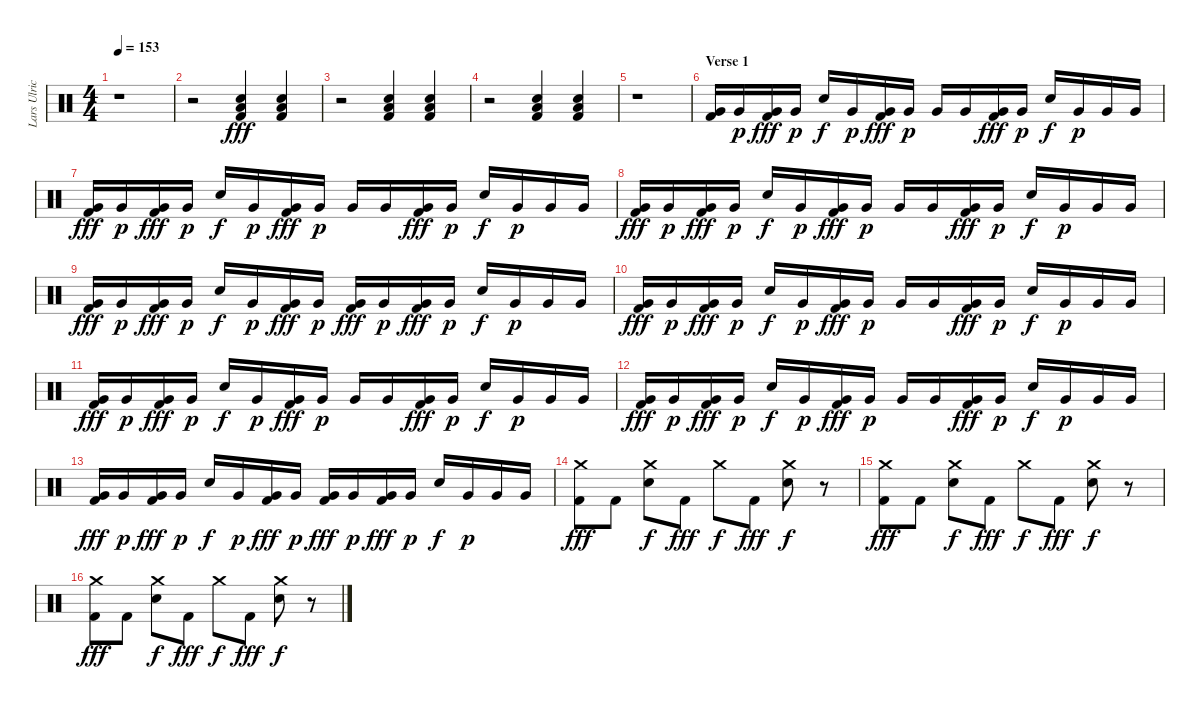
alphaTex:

\track ("Lars Ulrich (Drums)" "Lars Ulric") {instrument percussion}
\staff {score}
\articulation defaults
\ts (4 4)
\tempo 153
\clef neutral
\ks c
r.1{dy f} |
r.2 ("Low Floor Tom (hit)" "Electric Snare (hit)" "Kick (hit) 2").4{dy fff} ("Low Floor Tom (hit)" "Electric Snare (hit)" "Kick (hit) 2").4 |
r.2 ("Low Floor Tom (hit)" "Electric Snare (hit)" "Kick (hit) 2").4 ("Low Floor Tom (hit)" "Electric Snare (hit)" "Kick (hit) 2").4 |
r.2 ("Low Floor Tom (hit)" "Electric Snare (hit)" "Kick (hit) 2").4 ("Low Floor Tom (hit)" "Electric Snare (hit)" "Kick (hit) 2").4 |
r.1 |
\section ("" "Verse 1")
("Very Low Tom (hit)" "Kick (hit) 2").16 "Very Low Tom (hit)".16{dy p} ("Very Low Tom (hit)" "Kick (hit) 2").16{dy fff} "Very Low Tom (hit)".16{dy p} "Electric Snare (hit)".16{dy f} "Very Low Tom (hit)".16{dy p} ("Very Low Tom (hit)" "Kick (hit) 2").16{dy fff} "Very Low Tom (hit)".16{dy p} "Very Low Tom (hit)".16 "Very Low Tom (hit)".16 ("Very Low Tom (hit)" "Kick (hit) 2").16{dy fff} "Very Low Tom (hit)".16{dy p} "Electric Snare (hit)".16{dy f} "Very Low Tom (hit)".16{dy p} "Very Low Tom (hit)".16 "Very Low Tom (hit)".16 |
("Very Low Tom (hit)" "Kick (hit) 2").16{dy fff} "Very Low Tom (hit)".16{dy p} ("Very Low Tom (hit)" "Kick (hit) 2").16{dy fff} "Very Low Tom (hit)".16{dy p} "Electric Snare (hit)".16{dy f} "Very Low Tom (hit)".16{dy p} ("Very Low Tom (hit)" "Kick (hit) 2").16{dy fff} "Very Low Tom (hit)".16{dy p} "Very Low Tom (hit)".16 "Very Low Tom (hit)".16 ("Very Low Tom (hit)" "Kick (hit) 2").16{dy fff} "Very Low Tom (hit)".16{dy p} "Electric Snare (hit)".16{dy f} "Very Low Tom (hit)".16{dy p} "Very Low Tom (hit)".16 "Very Low Tom (hit)".16 |
("Very Low Tom (hit)" "Kick (hit) 2").16{dy fff} "Very Low Tom (hit)".16{dy p} ("Very Low Tom (hit)" "Kick (hit) 2").16{dy fff} "Very Low Tom (hit)".16{dy p} "Electric Snare (hit)".16{dy f} "Very Low Tom (hit)".16{dy p} ("Very Low Tom (hit)" "Kick (hit) 2").16{dy fff} "Very Low Tom (hit)".16{dy p} "Very Low Tom (hit)".16 "Very Low Tom (hit)".16 ("Very Low Tom (hit)" "Kick (hit) 2").16{dy fff} "Very Low Tom (hit)".16{dy p} "Electric Snare (hit)".16{dy f} "Very Low Tom (hit)".16{dy p} "Very Low Tom (hit)".16 "Very Low Tom (hit)".16 |
("Very Low Tom (hit)" "Kick (hit) 2").16{dy fff} "Very Low Tom (hit)".16{dy p} ("Very Low Tom (hit)" "Kick (hit) 2").16{dy fff} "Very Low Tom (hit)".16{dy p} "Electric Snare (hit)".16{dy f} "Very Low Tom (hit)".16{dy p} ("Very Low Tom (hit)" "Kick (hit) 2").16{dy fff} "Very Low Tom (hit)".16{dy p} ("Very Low Tom (hit)" "Kick (hit) 2").16{dy fff} "Very Low Tom (hit)".16{dy p} ("Very Low Tom (hit)" "Kick (hit) 2").16{dy fff} "Very Low Tom (hit)".16{dy p} "Electric Snare (hit)".16{dy f} "Very Low Tom (hit)".16{dy p} "Very Low Tom (hit)".16 "Very Low Tom (hit)".16 |
("Very Low Tom (hit)" "Kick (hit) 2").16{dy fff} "Very Low Tom (hit)".16{dy p} ("Very Low Tom (hit)" "Kick (hit) 2").16{dy fff} "Very Low Tom (hit)".16{dy p} "Electric Snare (hit)".16{dy f} "Very Low Tom (hit)".16{dy p} ("Very Low Tom (hit)" "Kick (hit) 2").16{dy fff} "Very Low Tom (hit)".16{dy p} "Very Low Tom (hit)".16 "Very Low Tom (hit)".16 ("Very Low Tom (hit)" "Kick (hit) 2").16{dy fff} "Very Low Tom (hit)".16{dy p} "Electric Snare (hit)".16{dy f} "Very Low Tom (hit)".16{dy p} "Very Low Tom (hit)".16 "Very Low Tom (hit)".16 |
("Very Low Tom (hit)" "Kick (hit) 2").16{dy fff} "Very Low Tom (hit)".16{dy p} ("Very Low Tom (hit)" "Kick (hit) 2").16{dy fff} "Very Low Tom (hit)".16{dy p} "Electric Snare (hit)".16{dy f} "Very Low Tom (hit)".16{dy p} ("Very Low Tom (hit)" "Kick (hit) 2").16{dy fff} "Very Low Tom (hit)".16{dy p} "Very Low Tom (hit)".16 "Very Low Tom (hit)".16 ("Very Low Tom (hit)" "Kick (hit) 2").16{dy fff} "Very Low Tom (hit)".16{dy p} "Electric Snare (hit)".16{dy f} "Very Low Tom (hit)".16{dy p} "Very Low Tom (hit)".16 "Very Low Tom (hit)".16 |
("Very Low Tom (hit)" "Kick (hit) 2").16{dy fff} "Very Low Tom (hit)".16{dy p} ("Very Low Tom (hit)" "Kick (hit) 2").16{dy fff} "Very Low Tom (hit)".16{dy p} "Electric Snare (hit)".16{dy f} "Very Low Tom (hit)".16{dy p} ("Very Low Tom (hit)" "Kick (hit) 2").16{dy fff} "Very Low Tom (hit)".16{dy p} "Very Low Tom (hit)".16 "Very Low Tom (hit)".16 ("Very Low Tom (hit)" "Kick (hit) 2").16{dy fff} "Very Low Tom (hit)".16{dy p} "Electric Snare (hit)".16{dy f} "Very Low Tom (hit)".16{dy p} "Very Low Tom (hit)".16 "Very Low Tom (hit)".16 |
("Very Low Tom (hit)" "Kick (hit) 2").16{dy fff} "Very Low Tom (hit)".16{dy p} ("Very Low Tom (hit)" "Kick (hit) 2").16{dy fff} "Very Low Tom (hit)".16{dy p} "Electric Snare (hit)".16{dy f} "Very Low Tom (hit)".16{dy p} ("Very Low Tom (hit)" "Kick (hit) 2").16{dy fff} "Very Low Tom (hit)".16{dy p} ("Very Low Tom (hit)" "Kick (hit) 2").16{dy fff} "Very Low Tom (hit)".16{dy p} ("Very Low Tom (hit)" "Kick (hit) 2").16{dy fff} "Very Low Tom (hit)".16{dy p} "Electric Snare (hit)".16{dy f} "Very Low Tom (hit)".16{dy p} "Very Low Tom (hit)".16 "Very Low Tom (hit)".16 |
("Crash medium (hit)" "Kick (hit) 2").8{dy fff} "Kick (hit) 2".8 ("Crash medium (hit)" "Electric Snare (hit)").8{dy f} "Kick (hit) 2".8{dy fff} "Crash medium (hit)".8{dy f} "Kick (hit) 2".8{dy fff} ("Crash medium (hit)" "Electric Snare (hit)").8{dy f} r.8 |
("Crash medium (hit)" "Kick (hit) 2").8{dy fff} "Kick (hit) 2".8 ("Crash medium (hit)" "Electric Snare (hit)").8{dy f} "Kick (hit) 2".8{dy fff} "Crash medium (hit)".8{dy f} "Kick (hit) 2".8{dy fff} ("Crash medium (hit)" "Electric Snare (hit)").8{dy f} r.8 |
("Crash medium (hit)" "Kick (hit) 2").8{dy fff} "Kick (hit) 2".8 ("Crash medium (hit)" "Electric Snare (hit)").8{dy f} "Kick (hit) 2".8{dy fff} "Crash medium (hit)".8{dy f} "Kick (hit) 2".8{dy fff} ("Crash medium (hit)" "Electric Snare (hit)").8{dy f} r.8
